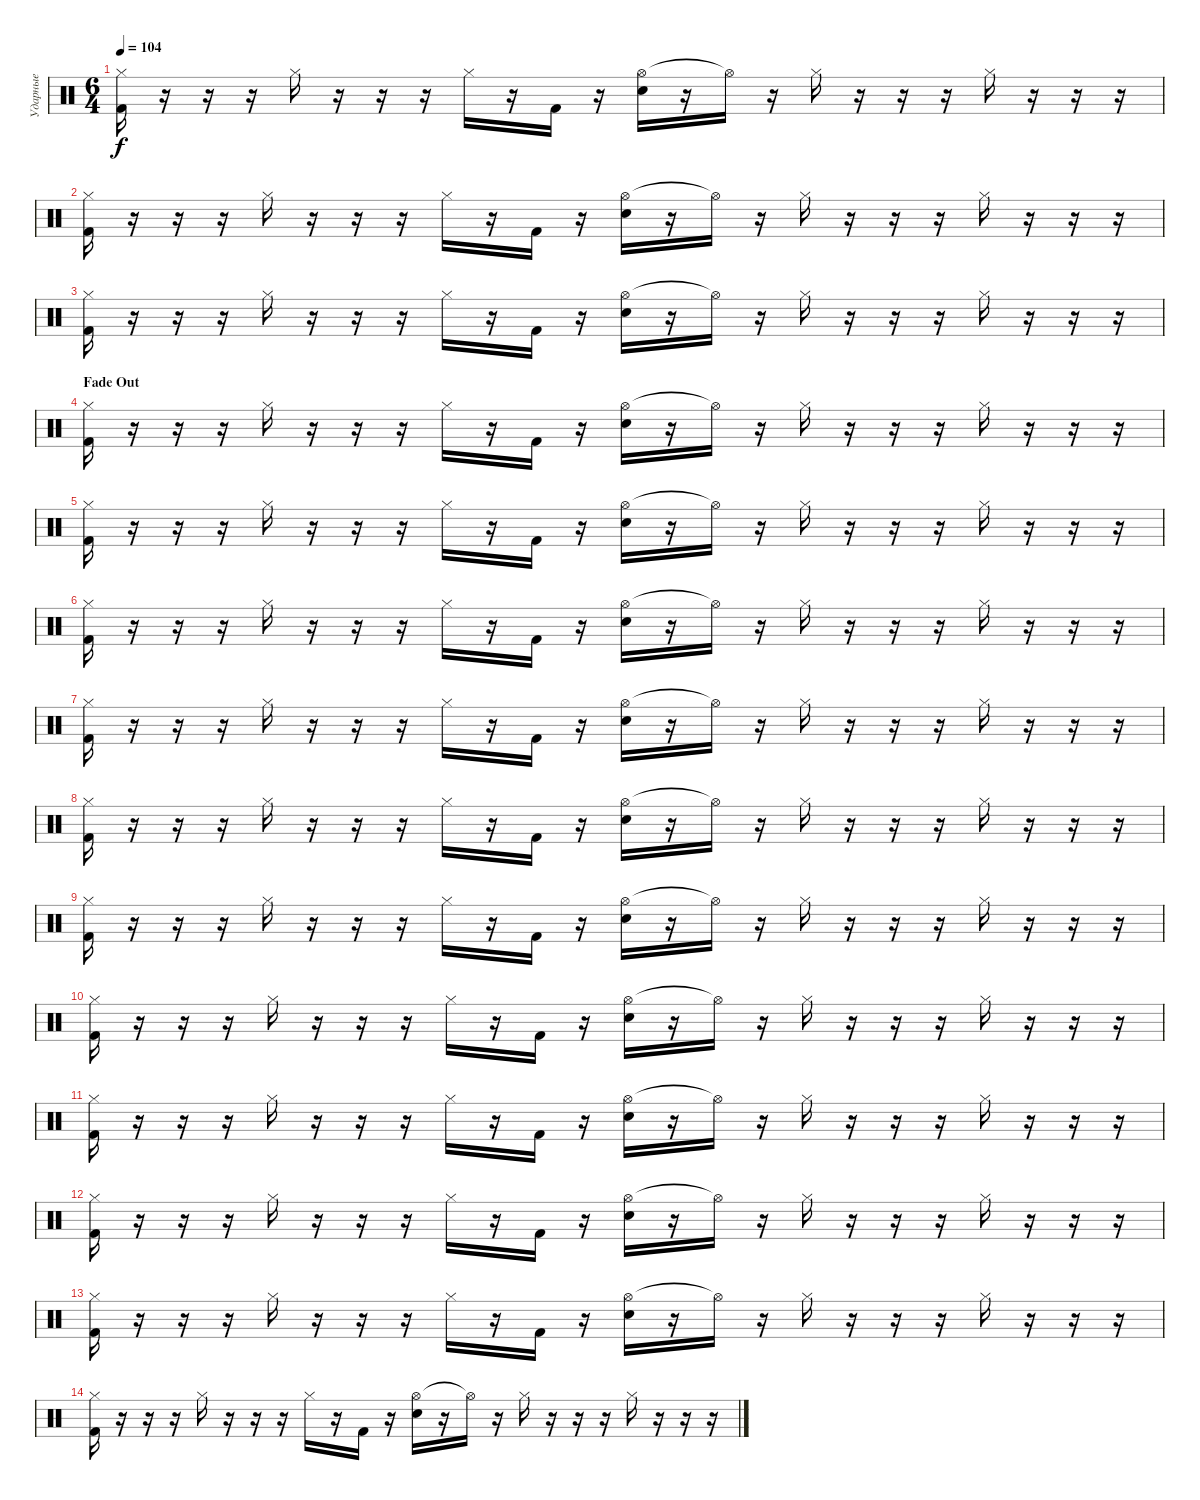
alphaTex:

\track ("Ударные" "Ударные") {instrument percussion}
\staff {score}
\articulation defaults
\ts (6 4)
\tempo 104
\clef neutral
\ks c
("Hi-Hat (closed)" "Kick (hit) 2").16{dy f} r.16 r.16 r.16 "Hi-Hat (closed)".16 r.16 r.16 r.16 "Hi-Hat (closed)".16 r.16 "Kick (hit) 2".16 r.16 ("Hi-Hat (open)" "Electric Snare (hit)").16 r.16 "Hi-Hat (open)"{t}.16 r.16 "Hi-Hat (closed)".16 r.16 r.16 r.16 "Hi-Hat (closed)".16 r.16 r.16 r.16 |
("Hi-Hat (closed)" "Kick (hit) 2").16 r.16 r.16 r.16 "Hi-Hat (closed)".16 r.16 r.16 r.16 "Hi-Hat (closed)".16 r.16 "Kick (hit) 2".16 r.16 ("Hi-Hat (open)" "Electric Snare (hit)").16 r.16 "Hi-Hat (open)"{t}.16 r.16 "Hi-Hat (closed)".16 r.16 r.16 r.16 "Hi-Hat (closed)".16 r.16 r.16 r.16 |
("Hi-Hat (closed)" "Kick (hit) 2").16 r.16 r.16 r.16 "Hi-Hat (closed)".16 r.16 r.16 r.16 "Hi-Hat (closed)".16 r.16 "Kick (hit) 2".16 r.16 ("Hi-Hat (open)" "Electric Snare (hit)").16 r.16 "Hi-Hat (open)"{t}.16 r.16 "Hi-Hat (closed)".16 r.16 r.16 r.16 "Hi-Hat (closed)".16 r.16 r.16 r.16 |
\section ("" "Fade Out")
("Hi-Hat (closed)" "Kick (hit) 2").16{volume 1} r.16 r.16 r.16 "Hi-Hat (closed)".16 r.16 r.16 r.16 "Hi-Hat (closed)".16 r.16 "Kick (hit) 2".16 r.16 ("Hi-Hat (open)" "Electric Snare (hit)").16 r.16 "Hi-Hat (open)"{t}.16 r.16 "Hi-Hat (closed)".16 r.16 r.16 r.16 "Hi-Hat (closed)".16 r.16 r.16 r.16 |
("Hi-Hat (closed)" "Kick (hit) 2").16 r.16 r.16 r.16 "Hi-Hat (closed)".16 r.16 r.16 r.16 "Hi-Hat (closed)".16 r.16 "Kick (hit) 2".16 r.16 ("Hi-Hat (open)" "Electric Snare (hit)").16 r.16 "Hi-Hat (open)"{t}.16 r.16 "Hi-Hat (closed)".16 r.16 r.16 r.16 "Hi-Hat (closed)".16 r.16 r.16 r.16 |
("Hi-Hat (closed)" "Kick (hit) 2").16 r.16 r.16 r.16 "Hi-Hat (closed)".16 r.16 r.16 r.16 "Hi-Hat (closed)".16 r.16 "Kick (hit) 2".16 r.16 ("Hi-Hat (open)" "Electric Snare (hit)").16 r.16 "Hi-Hat (open)"{t}.16 r.16 "Hi-Hat (closed)".16 r.16 r.16 r.16 "Hi-Hat (closed)".16 r.16 r.16 r.16 |
("Hi-Hat (closed)" "Kick (hit) 2").16 r.16 r.16 r.16 "Hi-Hat (closed)".16 r.16 r.16 r.16 "Hi-Hat (closed)".16 r.16 "Kick (hit) 2".16 r.16 ("Hi-Hat (open)" "Electric Snare (hit)").16 r.16 "Hi-Hat (open)"{t}.16 r.16 "Hi-Hat (closed)".16 r.16 r.16 r.16 "Hi-Hat (closed)".16 r.16 r.16 r.16 |
("Hi-Hat (closed)" "Kick (hit) 2").16 r.16 r.16 r.16 "Hi-Hat (closed)".16 r.16 r.16 r.16 "Hi-Hat (closed)".16 r.16 "Kick (hit) 2".16 r.16 ("Hi-Hat (open)" "Electric Snare (hit)").16 r.16 "Hi-Hat (open)"{t}.16 r.16 "Hi-Hat (closed)".16 r.16 r.16 r.16 "Hi-Hat (closed)".16 r.16 r.16 r.16 |
("Hi-Hat (closed)" "Kick (hit) 2").16 r.16 r.16 r.16 "Hi-Hat (closed)".16 r.16 r.16 r.16 "Hi-Hat (closed)".16 r.16 "Kick (hit) 2".16 r.16 ("Hi-Hat (open)" "Electric Snare (hit)").16 r.16 "Hi-Hat (open)"{t}.16 r.16 "Hi-Hat (closed)".16 r.16 r.16 r.16 "Hi-Hat (closed)".16 r.16 r.16 r.16 |
("Hi-Hat (closed)" "Kick (hit) 2").16 r.16 r.16 r.16 "Hi-Hat (closed)".16 r.16 r.16 r.16 "Hi-Hat (closed)".16 r.16 "Kick (hit) 2".16 r.16 ("Hi-Hat (open)" "Electric Snare (hit)").16 r.16 "Hi-Hat (open)"{t}.16 r.16 "Hi-Hat (closed)".16 r.16 r.16 r.16 "Hi-Hat (closed)".16 r.16 r.16 r.16 |
("Hi-Hat (closed)" "Kick (hit) 2").16 r.16 r.16 r.16 "Hi-Hat (closed)".16 r.16 r.16 r.16 "Hi-Hat (closed)".16 r.16 "Kick (hit) 2".16 r.16 ("Hi-Hat (open)" "Electric Snare (hit)").16 r.16 "Hi-Hat (open)"{t}.16 r.16 "Hi-Hat (closed)".16 r.16 r.16 r.16 "Hi-Hat (closed)".16 r.16 r.16 r.16 |
("Hi-Hat (closed)" "Kick (hit) 2").16 r.16 r.16 r.16 "Hi-Hat (closed)".16 r.16 r.16 r.16 "Hi-Hat (closed)".16 r.16 "Kick (hit) 2".16 r.16 ("Hi-Hat (open)" "Electric Snare (hit)").16 r.16 "Hi-Hat (open)"{t}.16 r.16 "Hi-Hat (closed)".16 r.16 r.16 r.16 "Hi-Hat (closed)".16 r.16 r.16 r.16 |
("Hi-Hat (closed)" "Kick (hit) 2").16 r.16 r.16 r.16 "Hi-Hat (closed)".16 r.16 r.16 r.16 "Hi-Hat (closed)".16 r.16 "Kick (hit) 2".16 r.16 ("Hi-Hat (open)" "Electric Snare (hit)").16 r.16 "Hi-Hat (open)"{t}.16 r.16 "Hi-Hat (closed)".16 r.16 r.16 r.16 "Hi-Hat (closed)".16 r.16 r.16 r.16 |
("Hi-Hat (closed)" "Kick (hit) 2").16 r.16 r.16 r.16 "Hi-Hat (closed)".16 r.16 r.16 r.16 "Hi-Hat (closed)".16 r.16 "Kick (hit) 2".16 r.16 ("Hi-Hat (open)" "Electric Snare (hit)").16 r.16 "Hi-Hat (open)"{t}.16 r.16 "Hi-Hat (closed)".16 r.16 r.16 r.16 "Hi-Hat (closed)".16 r.16 r.16 r.16
